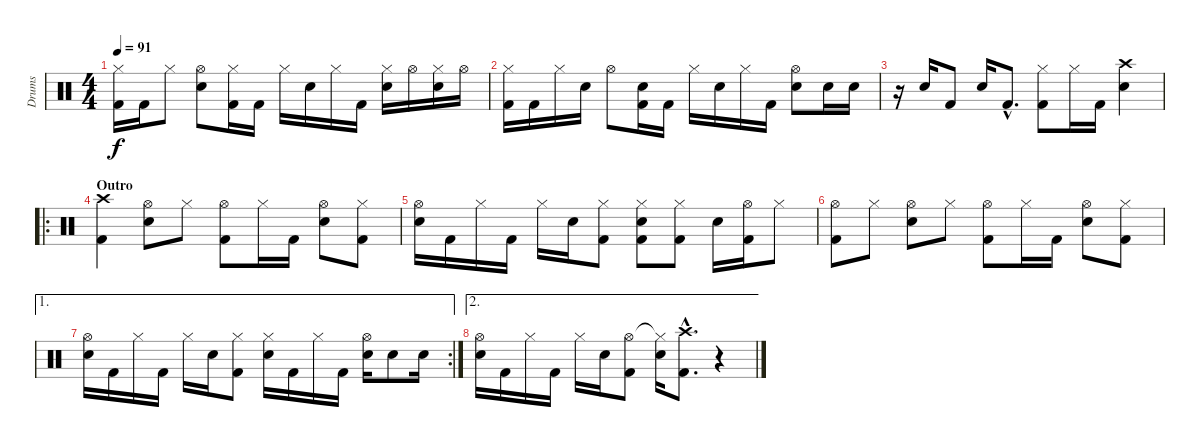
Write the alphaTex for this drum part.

\track ("Drums" "Drums") {instrument percussion}
\staff {score}
\articulation defaults
\ts (4 4)
\tempo 91
\clef neutral
\ks c
("Hi-Hat (closed)" "Kick (hit) 2").16{dy f} "Kick (hit) 2".16 "Hi-Hat (closed)".8 ("Hi-Hat (open)" "Electric Snare (hit)").8 ("Hi-Hat (closed)" "Kick (hit) 2").16 "Kick (hit) 2".16 "Hi-Hat (closed)".16 "Electric Snare (hit)".16 "Hi-Hat (closed)".16 "Kick (hit) 2".16 ("Hi-Hat (closed)" "Electric Snare (hit)").16 "Hi-Hat (open)".16 ("Hi-Hat (closed)" "Electric Snare (hit)").16 "Hi-Hat (open)".16 |
("Hi-Hat (closed)" "Kick (hit) 2").16 "Kick (hit) 2".16 "Hi-Hat (closed)".16 "Electric Snare (hit)".16 "Hi-Hat (open)".8 ("Electric Snare (hit)" "Kick (hit) 2").16 "Kick (hit) 2".16 "Hi-Hat (closed)".16 "Electric Snare (hit)".16 "Hi-Hat (closed)".16 "Kick (hit) 2".16 ("Hi-Hat (open)" "Electric Snare (hit)").8 "Electric Snare (hit)".16 "Electric Snare (hit)".16 |
r.16 "Electric Snare (hit)".16 "Kick (hit) 2".8 "Electric Snare (hit)".16 "Kick (hit) 2"{hac}.8{d} ("Hi-Hat (closed)" "Kick (hit) 2").8 "Hi-Hat (closed)".16 "Kick (hit) 2".16 ("Crash high (hit)" "Electric Snare (hit)").4 |
\ro
\section ("" "Outro")
("Crash high (hit)" "Kick (hit) 2").4 ("Hi-Hat (open)" "Electric Snare (hit)").8 "Hi-Hat (closed)".8 ("Hi-Hat (open)" "Kick (hit) 2").8 "Hi-Hat (closed)".16 "Kick (hit) 2".16 ("Hi-Hat (open)" "Electric Snare (hit)").8 ("Hi-Hat (closed)" "Kick (hit) 2").8 |
("Hi-Hat (open)" "Electric Snare (hit)").16 "Kick (hit) 2".16 "Hi-Hat (closed)".16 "Kick (hit) 2".16 "Hi-Hat (closed)".16 "Electric Snare (hit)".16 ("Hi-Hat (closed)" "Kick (hit) 2").8 ("Hi-Hat (closed)" "Electric Snare (hit)" "Kick (hit) 2").8 ("Hi-Hat (closed)" "Kick (hit) 2").8 "Electric Snare (hit)".16 ("Hi-Hat (open)" "Kick (hit) 2").16 "Hi-Hat (closed)".8 |
("Hi-Hat (open)" "Kick (hit) 2").8 "Hi-Hat (closed)".8 ("Hi-Hat (open)" "Electric Snare (hit)").8 "Hi-Hat (closed)".8 ("Hi-Hat (open)" "Kick (hit) 2").8 "Hi-Hat (closed)".16 "Kick (hit) 2".16 ("Hi-Hat (open)" "Electric Snare (hit)").8 ("Hi-Hat (closed)" "Kick (hit) 2").8 |
\ae 1
\rc 2
("Hi-Hat (open)" "Electric Snare (hit)").16 "Kick (hit) 2".16 "Hi-Hat (closed)".16 "Kick (hit) 2".16 "Hi-Hat (closed)".16 "Electric Snare (hit)".16 ("Hi-Hat (closed)" "Kick (hit) 2").8 ("Hi-Hat (closed)" "Electric Snare (hit)").16 "Kick (hit) 2".16 "Hi-Hat (closed)".16 "Kick (hit) 2".16 ("Hi-Hat (open)" "Electric Snare (hit)").16 "Electric Snare (hit)".8 "Electric Snare (hit)".16 |
\ae 2
("Hi-Hat (open)" "Electric Snare (hit)").16 "Kick (hit) 2".16 "Hi-Hat (closed)".16 "Kick (hit) 2".16 "Hi-Hat (closed)".16 "Electric Snare (hit)".16 ("Hi-Hat (open)" "Kick (hit) 2").8 ("Hi-Hat (closed)"{t} "Electric Snare (hit)").16 ("Crash high (hit)"{hac} "Kick (hit) 2"{hac}).8{d} r.4
